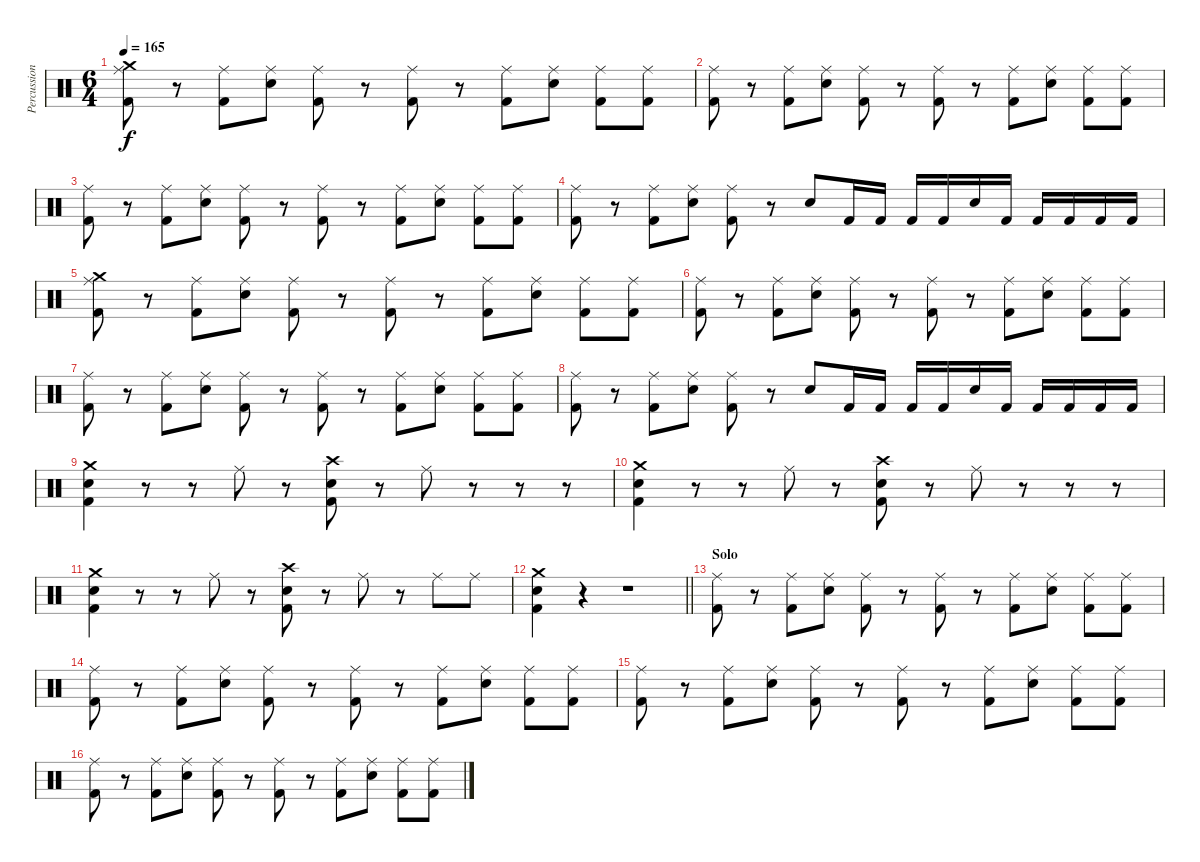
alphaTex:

\track ("Percussion" "Percussion") {instrument percussion}
\staff {score}
\articulation defaults
\ts (6 4)
\tempo 165
\clef neutral
\ks c
("Crash medium (hit)" "Ride (middle)" "Kick (hit) 2").8{dy f} r.8 ("Ride (middle)" "Kick (hit) 2").8 ("Ride (middle)" "Electric Snare (hit)").8 ("Ride (middle)" "Kick (hit) 2").8 r.8 ("Ride (middle)" "Kick (hit) 2").8 r.8 ("Ride (middle)" "Kick (hit) 2").8 ("Ride (middle)" "Electric Snare (hit)").8 ("Ride (middle)" "Kick (hit) 2").8 ("Ride (middle)" "Kick (hit) 2").8 |
("Ride (middle)" "Kick (hit) 2").8 r.8 ("Ride (middle)" "Kick (hit) 2").8 ("Ride (middle)" "Electric Snare (hit)").8 ("Ride (middle)" "Kick (hit) 2").8 r.8 ("Ride (middle)" "Kick (hit) 2").8 r.8 ("Ride (middle)" "Kick (hit) 2").8 ("Ride (middle)" "Electric Snare (hit)").8 ("Ride (middle)" "Kick (hit) 2").8 ("Ride (middle)" "Kick (hit) 2").8 |
("Ride (middle)" "Kick (hit) 2").8 r.8 ("Ride (middle)" "Kick (hit) 2").8 ("Ride (middle)" "Electric Snare (hit)").8 ("Ride (middle)" "Kick (hit) 2").8 r.8 ("Ride (middle)" "Kick (hit) 2").8 r.8 ("Ride (middle)" "Kick (hit) 2").8 ("Ride (middle)" "Electric Snare (hit)").8 ("Ride (middle)" "Kick (hit) 2").8 ("Ride (middle)" "Kick (hit) 2").8 |
("Ride (middle)" "Kick (hit) 2").8 r.8 ("Ride (middle)" "Kick (hit) 2").8 ("Ride (middle)" "Electric Snare (hit)").8 ("Ride (middle)" "Kick (hit) 2").8 r.8 "Electric Snare (hit)".8 "Kick (hit) 2".16 "Kick (hit) 2".16 "Kick (hit) 2".16 "Kick (hit) 2".16 "Electric Snare (hit)".16 "Kick (hit) 2".16 "Kick (hit) 2".16 "Kick (hit) 2".16 "Kick (hit) 2".16 "Kick (hit) 2".16 |
("Crash medium (hit)" "Ride (middle)" "Kick (hit) 2").8 r.8 ("Ride (middle)" "Kick (hit) 2").8 ("Ride (middle)" "Electric Snare (hit)").8 ("Ride (middle)" "Kick (hit) 2").8 r.8 ("Ride (middle)" "Kick (hit) 2").8 r.8 ("Ride (middle)" "Kick (hit) 2").8 ("Ride (middle)" "Electric Snare (hit)").8 ("Ride (middle)" "Kick (hit) 2").8 ("Ride (middle)" "Kick (hit) 2").8 |
("Ride (middle)" "Kick (hit) 2").8 r.8 ("Ride (middle)" "Kick (hit) 2").8 ("Ride (middle)" "Electric Snare (hit)").8 ("Ride (middle)" "Kick (hit) 2").8 r.8 ("Ride (middle)" "Kick (hit) 2").8 r.8 ("Ride (middle)" "Kick (hit) 2").8 ("Ride (middle)" "Electric Snare (hit)").8 ("Ride (middle)" "Kick (hit) 2").8 ("Ride (middle)" "Kick (hit) 2").8 |
("Ride (middle)" "Kick (hit) 2").8 r.8 ("Ride (middle)" "Kick (hit) 2").8 ("Ride (middle)" "Electric Snare (hit)").8 ("Ride (middle)" "Kick (hit) 2").8 r.8 ("Ride (middle)" "Kick (hit) 2").8 r.8 ("Ride (middle)" "Kick (hit) 2").8 ("Ride (middle)" "Electric Snare (hit)").8 ("Ride (middle)" "Kick (hit) 2").8 ("Ride (middle)" "Kick (hit) 2").8 |
("Ride (middle)" "Kick (hit) 2").8 r.8 ("Ride (middle)" "Kick (hit) 2").8 ("Ride (middle)" "Electric Snare (hit)").8 ("Ride (middle)" "Kick (hit) 2").8 r.8 "Electric Snare (hit)".8 "Kick (hit) 2".16 "Kick (hit) 2".16 "Kick (hit) 2".16 "Kick (hit) 2".16 "Electric Snare (hit)".16 "Kick (hit) 2".16 "Kick (hit) 2".16 "Kick (hit) 2".16 "Kick (hit) 2".16 "Kick (hit) 2".16 |
("Crash medium (hit)" "Electric Snare (hit)" "Kick (hit) 2").4 r.8 r.8 "Ride (middle)".8 r.8 ("Crash high (hit)" "Electric Snare (hit)" "Kick (hit) 2").8 r.8 "Ride (middle)".8 r.8 r.8 r.8 |
("Crash medium (hit)" "Electric Snare (hit)" "Kick (hit) 2").4 r.8 r.8 "Ride (middle)".8 r.8 ("Crash high (hit)" "Electric Snare (hit)" "Kick (hit) 2").8 r.8 "Ride (middle)".8 r.8 r.8 r.8 |
("Crash medium (hit)" "Electric Snare (hit)" "Kick (hit) 2").4 r.8 r.8 "Ride (middle)".8 r.8 ("Crash high (hit)" "Electric Snare (hit)" "Kick (hit) 2").8 r.8 "Ride (middle)".8 r.8 "Ride (middle)".8 "Ride (middle)".8 |
\barLineRight lightlight
("Crash medium (hit)" "Electric Snare (hit)" "Kick (hit) 2").4 r.4 r.1 |
\section ("" "Solo")
("Ride (middle)" "Kick (hit) 2").8 r.8 ("Ride (middle)" "Kick (hit) 2").8 ("Ride (middle)" "Electric Snare (hit)").8 ("Ride (middle)" "Kick (hit) 2").8 r.8 ("Ride (middle)" "Kick (hit) 2").8 r.8 ("Ride (middle)" "Kick (hit) 2").8 ("Ride (middle)" "Electric Snare (hit)").8 ("Ride (middle)" "Kick (hit) 2").8 ("Ride (middle)" "Kick (hit) 2").8 |
("Ride (middle)" "Kick (hit) 2").8 r.8 ("Ride (middle)" "Kick (hit) 2").8 ("Ride (middle)" "Electric Snare (hit)").8 ("Ride (middle)" "Kick (hit) 2").8 r.8 ("Ride (middle)" "Kick (hit) 2").8 r.8 ("Ride (middle)" "Kick (hit) 2").8 ("Ride (middle)" "Electric Snare (hit)").8 ("Ride (middle)" "Kick (hit) 2").8 ("Ride (middle)" "Kick (hit) 2").8 |
("Ride (middle)" "Kick (hit) 2").8 r.8 ("Ride (middle)" "Kick (hit) 2").8 ("Ride (middle)" "Electric Snare (hit)").8 ("Ride (middle)" "Kick (hit) 2").8 r.8 ("Ride (middle)" "Kick (hit) 2").8 r.8 ("Ride (middle)" "Kick (hit) 2").8 ("Ride (middle)" "Electric Snare (hit)").8 ("Ride (middle)" "Kick (hit) 2").8 ("Ride (middle)" "Kick (hit) 2").8 |
("Ride (middle)" "Kick (hit) 2").8 r.8 ("Ride (middle)" "Kick (hit) 2").8 ("Ride (middle)" "Electric Snare (hit)").8 ("Ride (middle)" "Kick (hit) 2").8 r.8 ("Ride (middle)" "Kick (hit) 2").8 r.8 ("Ride (middle)" "Kick (hit) 2").8 ("Ride (middle)" "Electric Snare (hit)").8 ("Ride (middle)" "Kick (hit) 2").8 ("Ride (middle)" "Kick (hit) 2").8
